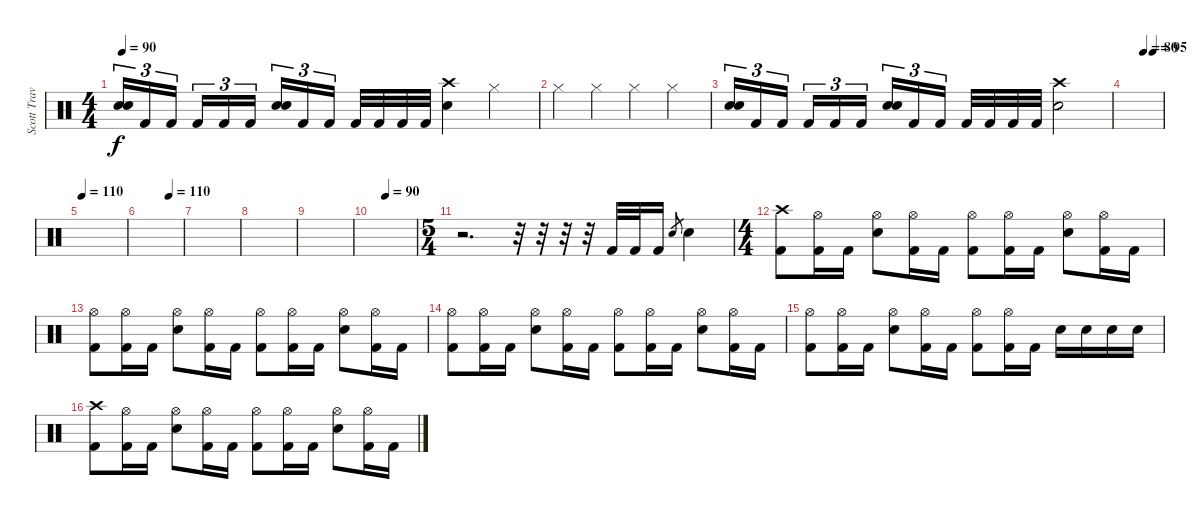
\track ("Scott Travis" "Scott Trav") {instrument percussion}
\staff {score}
\articulation defaults
\ts (4 4)
\tempo 90
\clef neutral
\ks c
("Electric Snare (hit)" "Electric Snare (hit)").16{tu (3 2) dy f} "Kick (hit) 2".16{tu (3 2)} "Kick (hit) 2".16{tu (3 2) beam splitsecondary} "Kick (hit) 2".16{tu (3 2)} "Kick (hit) 2".16{tu (3 2)} "Kick (hit) 2".16{tu (3 2)} ("Electric Snare (hit)" "Electric Snare (hit)").16{tu (3 2)} "Kick (hit) 2".16{tu (3 2)} "Kick (hit) 2".16{tu (3 2) beam splitsecondary} "Kick (hit) 2".32 "Kick (hit) 2".32 "Kick (hit) 2".32 "Kick (hit) 2".32 ("Electric Snare (hit)" "Crash high (hit)").4 "Hi-Hat (closed)".4 |
"Hi-Hat (closed)".4 "Hi-Hat (closed)".4 "Hi-Hat (closed)".4 "Hi-Hat (closed)".4 |
("Electric Snare (hit)" "Electric Snare (hit)").16{tu (3 2)} "Kick (hit) 2".16{tu (3 2)} "Kick (hit) 2".16{tu (3 2) beam splitsecondary} "Kick (hit) 2".16{tu (3 2)} "Kick (hit) 2".16{tu (3 2)} "Kick (hit) 2".16{tu (3 2)} ("Electric Snare (hit)" "Electric Snare (hit)").16{tu (3 2)} "Kick (hit) 2".16{tu (3 2)} "Kick (hit) 2".16{tu (3 2) beam splitsecondary} "Kick (hit) 2".32 "Kick (hit) 2".32 "Kick (hit) 2".32 "Kick (hit) 2".32 ("Electric Snare (hit)" "Crash high (hit)").2 |
\tempo (80 0.5)
\tempo (95 0.75)
|
\tempo 110
|
\tempo (110 0.6875)
|
|
|
|
\tempo (90 0.3125)
|
\ts (5 4)
r.2{d} r.32 r.32 r.32 r.32 "Kick (hit) 2".32 "Kick (hit) 2".32 "Kick (hit) 2".16 "Electric Snare (hit)".8{gr} "Electric Snare (hit)".4 |
\ts (4 4)
("Kick (hit) 2" "Crash high (hit)").8 ("Kick (hit) 2" "Hi-Hat (open)").16 "Kick (hit) 2".16 ("Electric Snare (hit)" "Hi-Hat (open)").8 ("Kick (hit) 2" "Hi-Hat (open)").16 "Kick (hit) 2".16 ("Kick (hit) 2" "Hi-Hat (open)").8 ("Kick (hit) 2" "Hi-Hat (open)").16 "Kick (hit) 2".16 ("Electric Snare (hit)" "Hi-Hat (open)").8 ("Kick (hit) 2" "Hi-Hat (open)").16 "Kick (hit) 2".16 |
("Kick (hit) 2" "Hi-Hat (open)").8 ("Kick (hit) 2" "Hi-Hat (open)").16 "Kick (hit) 2".16 ("Electric Snare (hit)" "Hi-Hat (open)").8 ("Kick (hit) 2" "Hi-Hat (open)").16 "Kick (hit) 2".16 ("Kick (hit) 2" "Hi-Hat (open)").8 ("Kick (hit) 2" "Hi-Hat (open)").16 "Kick (hit) 2".16 ("Electric Snare (hit)" "Hi-Hat (open)").8 ("Kick (hit) 2" "Hi-Hat (open)").16 "Kick (hit) 2".16 |
("Kick (hit) 2" "Hi-Hat (open)").8 ("Kick (hit) 2" "Hi-Hat (open)").16 "Kick (hit) 2".16 ("Electric Snare (hit)" "Hi-Hat (open)").8 ("Kick (hit) 2" "Hi-Hat (open)").16 "Kick (hit) 2".16 ("Kick (hit) 2" "Hi-Hat (open)").8 ("Kick (hit) 2" "Hi-Hat (open)").16 "Kick (hit) 2".16 ("Electric Snare (hit)" "Hi-Hat (open)").8 ("Kick (hit) 2" "Hi-Hat (open)").16 "Kick (hit) 2".16 |
("Kick (hit) 2" "Hi-Hat (open)").8 ("Kick (hit) 2" "Hi-Hat (open)").16 "Kick (hit) 2".16 ("Electric Snare (hit)" "Hi-Hat (open)").8 ("Kick (hit) 2" "Hi-Hat (open)").16 "Kick (hit) 2".16 ("Kick (hit) 2" "Hi-Hat (open)").8 ("Kick (hit) 2" "Hi-Hat (open)").16 "Kick (hit) 2".16 "Electric Snare (hit)".16 "Electric Snare (hit)".16 "Electric Snare (hit)".16 "Electric Snare (hit)".16 |
("Kick (hit) 2" "Crash high (hit)").8 ("Kick (hit) 2" "Hi-Hat (open)").16 "Kick (hit) 2".16 ("Electric Snare (hit)" "Hi-Hat (open)").8 ("Kick (hit) 2" "Hi-Hat (open)").16 "Kick (hit) 2".16 ("Kick (hit) 2" "Hi-Hat (open)").8 ("Kick (hit) 2" "Hi-Hat (open)").16 "Kick (hit) 2".16 ("Electric Snare (hit)" "Hi-Hat (open)").8 ("Kick (hit) 2" "Hi-Hat (open)").16 "Kick (hit) 2".16
